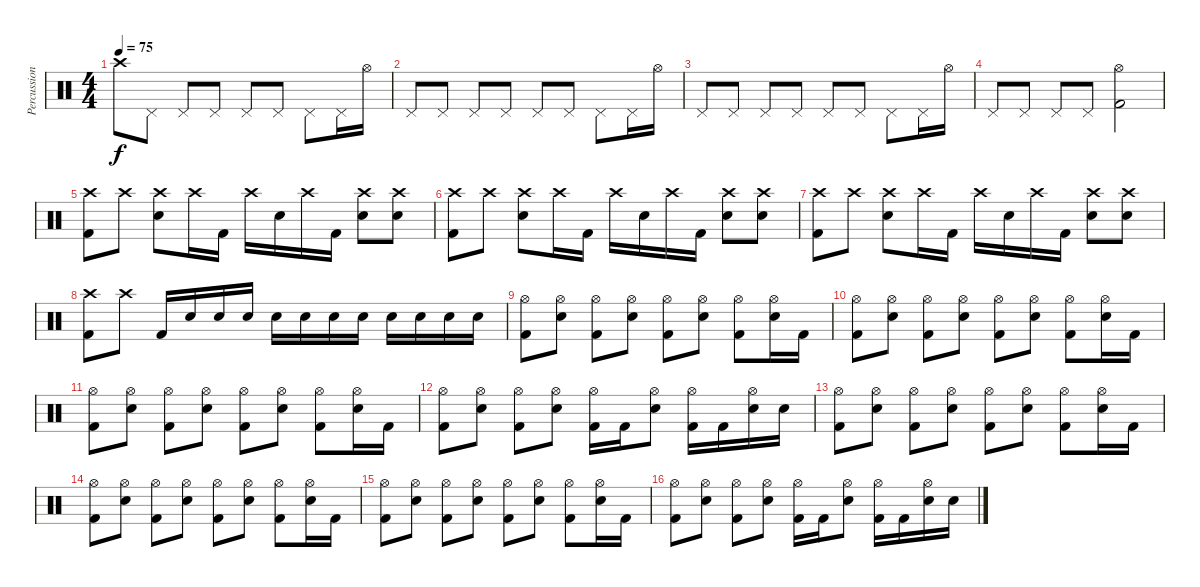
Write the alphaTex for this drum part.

\track ("Percussion" "Percussion") {instrument percussion}
\staff {score}
\articulation defaults
\ts (4 4)
\tempo 75
\clef neutral
\ks c "Crash high (hit)".8{dy f} "Pedal Hi-Hat (hit)".8 "Pedal Hi-Hat (hit)".8 "Pedal Hi-Hat (hit)".8 "Pedal Hi-Hat (hit)".8 "Pedal Hi-Hat (hit)".8 "Pedal Hi-Hat (hit)".8 "Pedal Hi-Hat (hit)".16 "Hi-Hat (open)".16
|
"Pedal Hi-Hat (hit)".8 "Pedal Hi-Hat (hit)".8 "Pedal Hi-Hat (hit)".8 "Pedal Hi-Hat (hit)".8 "Pedal Hi-Hat (hit)".8 "Pedal Hi-Hat (hit)".8 "Pedal Hi-Hat (hit)".8 "Pedal Hi-Hat (hit)".16 "Hi-Hat (open)".16 |
"Pedal Hi-Hat (hit)".8 "Pedal Hi-Hat (hit)".8 "Pedal Hi-Hat (hit)".8 "Pedal Hi-Hat (hit)".8 "Pedal Hi-Hat (hit)".8 "Pedal Hi-Hat (hit)".8 "Pedal Hi-Hat (hit)".8 "Pedal Hi-Hat (hit)".16 "Hi-Hat (open)".16 |
"Pedal Hi-Hat (hit)".8 "Pedal Hi-Hat (hit)".8 "Pedal Hi-Hat (hit)".8 "Pedal Hi-Hat (hit)".8 ("Hi-Hat (open)" "Kick (hit) 2").2 |
("Crash high (hit)" "Kick (hit) 2").8 "Crash high (hit)".8 ("Crash high (hit)" "Snare (hit) 2").8 "Crash high (hit)".16 "Kick (hit) 2".16 "Crash high (hit)".16 "Snare (hit) 2".16 "Crash high (hit)".16 "Kick (hit) 2".16 ("Crash high (hit)" "Snare (hit) 2").8 ("Crash high (hit)" "Snare (hit) 2").8 |
("Crash high (hit)" "Kick (hit) 2").8 "Crash high (hit)".8 ("Crash high (hit)" "Snare (hit) 2").8 "Crash high (hit)".16 "Kick (hit) 2".16 "Crash high (hit)".16 "Snare (hit) 2".16 "Crash high (hit)".16 "Kick (hit) 2".16 ("Crash high (hit)" "Snare (hit) 2").8 ("Crash high (hit)" "Snare (hit) 2").8 |
("Crash high (hit)" "Kick (hit) 2").8 "Crash high (hit)".8 ("Crash high (hit)" "Snare (hit) 2").8 "Crash high (hit)".16 "Kick (hit) 2".16 "Crash high (hit)".16 "Snare (hit) 2".16 "Crash high (hit)".16 "Kick (hit) 2".16 ("Crash high (hit)" "Snare (hit) 2").8 ("Crash high (hit)" "Snare (hit) 2").8 |
("Crash high (hit)" "Kick (hit) 2").8 "Crash high (hit)".8 "Kick (hit) 2".16 "Snare (hit) 2".16 "Snare (hit) 2".16 "Snare (hit) 2".16 "Snare (hit) 2".16 "Snare (hit) 2".16 "Snare (hit) 2".16 "Snare (hit) 2".16 "Snare (hit) 2".16 "Snare (hit) 2".16 "Snare (hit) 2".16 "Snare (hit) 2".16 |
("Hi-Hat (open)" "Kick (hit) 2").8 ("Hi-Hat (open)" "Snare (hit) 2").8 ("Hi-Hat (open)" "Kick (hit) 2").8 ("Hi-Hat (open)" "Snare (hit) 2").8 ("Hi-Hat (open)" "Kick (hit) 2").8 ("Hi-Hat (open)" "Snare (hit) 2").8 ("Hi-Hat (open)" "Kick (hit) 2").8 ("Hi-Hat (open)" "Snare (hit) 2").16 "Kick (hit) 2".16 |
("Hi-Hat (open)" "Kick (hit) 2").8 ("Hi-Hat (open)" "Snare (hit) 2").8 ("Hi-Hat (open)" "Kick (hit) 2").8 ("Hi-Hat (open)" "Snare (hit) 2").8 ("Hi-Hat (open)" "Kick (hit) 2").8 ("Hi-Hat (open)" "Snare (hit) 2").8 ("Hi-Hat (open)" "Kick (hit) 2").8 ("Hi-Hat (open)" "Snare (hit) 2").16 "Kick (hit) 2".16 |
("Hi-Hat (open)" "Kick (hit) 2").8 ("Hi-Hat (open)" "Snare (hit) 2").8 ("Hi-Hat (open)" "Kick (hit) 2").8 ("Hi-Hat (open)" "Snare (hit) 2").8 ("Hi-Hat (open)" "Kick (hit) 2").8 ("Hi-Hat (open)" "Snare (hit) 2").8 ("Hi-Hat (open)" "Kick (hit) 2").8 ("Hi-Hat (open)" "Snare (hit) 2").16 "Kick (hit) 2".16 |
("Hi-Hat (open)" "Kick (hit) 2").8 ("Hi-Hat (open)" "Snare (hit) 2").8 ("Hi-Hat (open)" "Kick (hit) 2").8 ("Hi-Hat (open)" "Snare (hit) 2").8 ("Hi-Hat (open)" "Kick (hit) 2").16 "Kick (hit) 2".16 ("Hi-Hat (open)" "Snare (hit) 2").8 ("Hi-Hat (open)" "Kick (hit) 2").16 "Kick (hit) 2".16 ("Hi-Hat (open)" "Snare (hit) 2").16 "Snare (hit) 2".16 |
("Hi-Hat (open)" "Kick (hit) 2").8 ("Hi-Hat (open)" "Snare (hit) 2").8 ("Hi-Hat (open)" "Kick (hit) 2").8 ("Hi-Hat (open)" "Snare (hit) 2").8 ("Hi-Hat (open)" "Kick (hit) 2").8 ("Hi-Hat (open)" "Snare (hit) 2").8 ("Hi-Hat (open)" "Kick (hit) 2").8 ("Hi-Hat (open)" "Snare (hit) 2").16 "Kick (hit) 2".16 |
("Hi-Hat (open)" "Kick (hit) 2").8 ("Hi-Hat (open)" "Snare (hit) 2").8 ("Hi-Hat (open)" "Kick (hit) 2").8 ("Hi-Hat (open)" "Snare (hit) 2").8 ("Hi-Hat (open)" "Kick (hit) 2").8 ("Hi-Hat (open)" "Snare (hit) 2").8 ("Hi-Hat (open)" "Kick (hit) 2").8 ("Hi-Hat (open)" "Snare (hit) 2").16 "Kick (hit) 2".16 |
("Hi-Hat (open)" "Kick (hit) 2").8 ("Hi-Hat (open)" "Snare (hit) 2").8 ("Hi-Hat (open)" "Kick (hit) 2").8 ("Hi-Hat (open)" "Snare (hit) 2").8 ("Hi-Hat (open)" "Kick (hit) 2").8 ("Hi-Hat (open)" "Snare (hit) 2").8 ("Hi-Hat (open)" "Kick (hit) 2").8 ("Hi-Hat (open)" "Snare (hit) 2").16 "Kick (hit) 2".16 |
("Hi-Hat (open)" "Kick (hit) 2").8 ("Hi-Hat (open)" "Snare (hit) 2").8 ("Hi-Hat (open)" "Kick (hit) 2").8 ("Hi-Hat (open)" "Snare (hit) 2").8 ("Hi-Hat (open)" "Kick (hit) 2").16 "Kick (hit) 2".16 ("Hi-Hat (open)" "Snare (hit) 2").8 ("Hi-Hat (open)" "Kick (hit) 2").16 "Kick (hit) 2".16 ("Hi-Hat (open)" "Snare (hit) 2").16 "Snare (hit) 2".16
